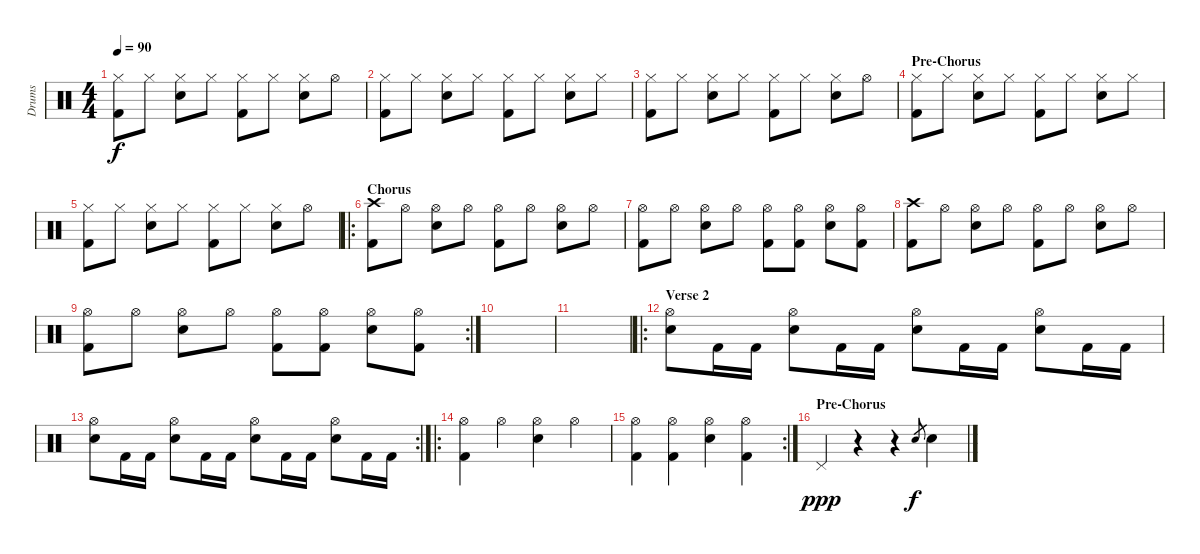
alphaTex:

\track ("Drums" "Drums") {instrument percussion}
\staff {score}
\articulation defaults
\ts (4 4)
\tempo 90
\clef neutral
\ks c
("Hi-Hat (closed)" "Kick (hit) 2").8{dy f} "Hi-Hat (closed)".8 ("Hi-Hat (closed)" "Electric Snare (hit)").8 "Hi-Hat (closed)".8 ("Hi-Hat (closed)" "Kick (hit) 2").8 "Hi-Hat (closed)".8 ("Hi-Hat (closed)" "Electric Snare (hit)").8 "Hi-Hat (open)".8 |
("Hi-Hat (closed)" "Kick (hit) 2").8 "Hi-Hat (closed)".8 ("Hi-Hat (closed)" "Electric Snare (hit)").8 "Hi-Hat (closed)".8 ("Hi-Hat (closed)" "Kick (hit) 2").8 "Hi-Hat (closed)".8 ("Hi-Hat (closed)" "Electric Snare (hit)").8 "Hi-Hat (closed)".8 |
("Hi-Hat (closed)" "Kick (hit) 2").8 "Hi-Hat (closed)".8 ("Hi-Hat (closed)" "Electric Snare (hit)").8 "Hi-Hat (closed)".8 ("Hi-Hat (closed)" "Kick (hit) 2").8 "Hi-Hat (closed)".8 ("Hi-Hat (closed)" "Electric Snare (hit)").8 "Hi-Hat (open)".8 |
\section ("" "Pre-Chorus")
("Hi-Hat (closed)" "Kick (hit) 2").8 "Hi-Hat (closed)".8 ("Hi-Hat (closed)" "Electric Snare (hit)").8 "Hi-Hat (closed)".8 ("Hi-Hat (closed)" "Kick (hit) 2").8 "Hi-Hat (closed)".8 ("Hi-Hat (closed)" "Electric Snare (hit)").8 "Hi-Hat (closed)".8 |
("Hi-Hat (closed)" "Kick (hit) 2").8 "Hi-Hat (closed)".8 ("Hi-Hat (closed)" "Electric Snare (hit)").8 "Hi-Hat (closed)".8 ("Hi-Hat (closed)" "Kick (hit) 2").8 "Hi-Hat (closed)".8 ("Hi-Hat (closed)" "Electric Snare (hit)").8 "Hi-Hat (open)".8 |
\ro
\section ("" "Chorus")
("Crash high (hit)" "Kick (hit) 2").8 "Hi-Hat (open)".8 ("Hi-Hat (open)" "Electric Snare (hit)").8 "Hi-Hat (open)".8 ("Hi-Hat (open)" "Kick (hit) 2").8 "Hi-Hat (open)".8 ("Hi-Hat (open)" "Electric Snare (hit)").8 "Hi-Hat (open)".8 |
("Hi-Hat (open)" "Kick (hit) 2").8 "Hi-Hat (open)".8 ("Hi-Hat (open)" "Electric Snare (hit)").8 "Hi-Hat (open)".8 ("Hi-Hat (open)" "Kick (hit) 2").8 ("Hi-Hat (open)" "Kick (hit) 2").8 ("Hi-Hat (open)" "Electric Snare (hit)").8 ("Hi-Hat (open)" "Kick (hit) 2").8 |
("Crash high (hit)" "Kick (hit) 2").8 "Hi-Hat (open)".8 ("Hi-Hat (open)" "Electric Snare (hit)").8 "Hi-Hat (open)".8 ("Hi-Hat (open)" "Kick (hit) 2").8 "Hi-Hat (open)".8 ("Hi-Hat (open)" "Electric Snare (hit)").8 "Hi-Hat (open)".8 |
\rc 2
("Hi-Hat (open)" "Kick (hit) 2").8 "Hi-Hat (open)".8 ("Hi-Hat (open)" "Electric Snare (hit)").8 "Hi-Hat (open)".8 ("Hi-Hat (open)" "Kick (hit) 2").8 ("Hi-Hat (open)" "Kick (hit) 2").8 ("Hi-Hat (open)" "Electric Snare (hit)").8 ("Hi-Hat (open)" "Kick (hit) 2").8 |
|
|
\ro
\section ("" "Verse 2")
("Hi-Hat (open)" "Electric Snare (hit)").8 "Kick (hit) 2".16 "Kick (hit) 2".16 ("Hi-Hat (open)" "Electric Snare (hit)").8 "Kick (hit) 2".16 "Kick (hit) 2".16 ("Hi-Hat (open)" "Electric Snare (hit)").8 "Kick (hit) 2".16 "Kick (hit) 2".16 ("Hi-Hat (open)" "Electric Snare (hit)").8 "Kick (hit) 2".16 "Kick (hit) 2".16 |
\rc 2
("Hi-Hat (open)" "Electric Snare (hit)").8 "Kick (hit) 2".16 "Kick (hit) 2".16 ("Hi-Hat (open)" "Electric Snare (hit)").8 "Kick (hit) 2".16 "Kick (hit) 2".16 ("Hi-Hat (open)" "Electric Snare (hit)").8 "Kick (hit) 2".16 "Kick (hit) 2".16 ("Hi-Hat (open)" "Electric Snare (hit)").8 "Kick (hit) 2".16 "Kick (hit) 2".16 |
\ro
("Hi-Hat (open)" "Kick (hit) 2").4 "Hi-Hat (open)".4 ("Hi-Hat (open)" "Electric Snare (hit)").4 "Hi-Hat (open)".4 |
\rc 2
("Hi-Hat (open)" "Kick (hit) 2").4 ("Hi-Hat (open)" "Kick (hit) 2").4 ("Hi-Hat (open)" "Electric Snare (hit)").4 ("Hi-Hat (open)" "Kick (hit) 2").4 |
\section ("" "Pre-Chorus")
"Pedal Hi-Hat (hit)".4{dy ppp} r.4 r.4 "Electric Snare (hit)".8{gr dy f} "Electric Snare (hit)".4
